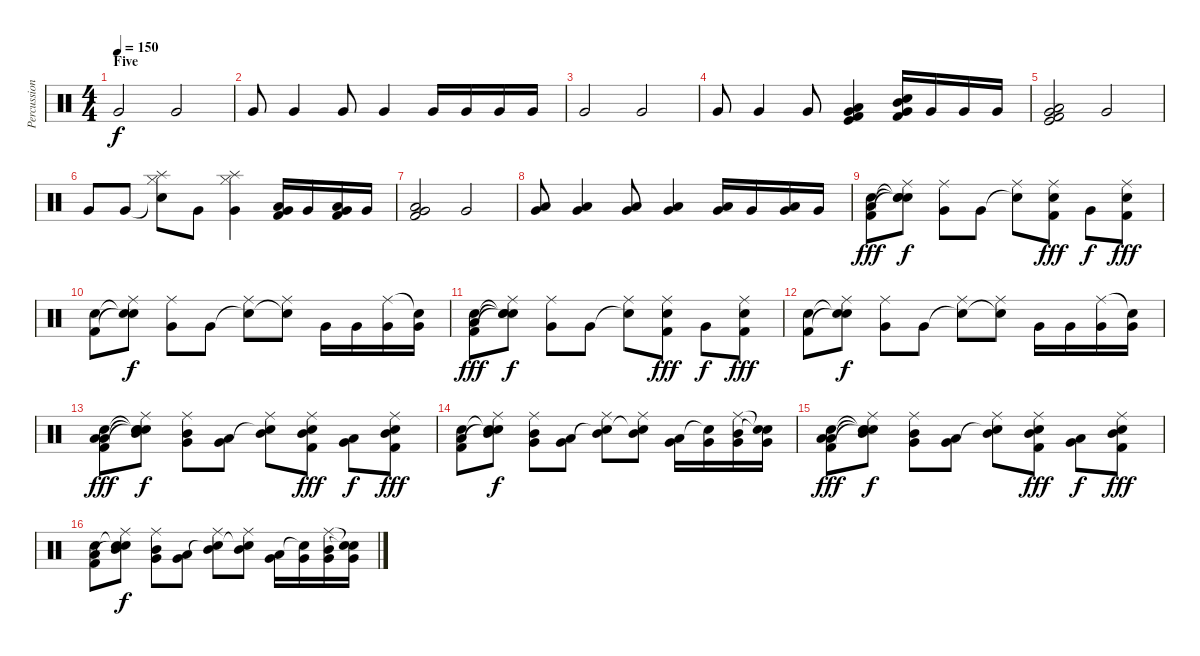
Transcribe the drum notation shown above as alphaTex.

\track ("Percussion" "Percussion") {instrument percussion}
\staff {score}
\articulation defaults
\ts (4 4)
\section ("" "Five")
\tempo 150
\clef neutral
\ks c "Very Low Tom (hit)".2{dy f} "Very Low Tom (hit)".2
|
"Very Low Tom (hit)".8 "Very Low Tom (hit)".4 "Very Low Tom (hit)".8 "Very Low Tom (hit)".4 "Very Low Tom (hit)".16 "Very Low Tom (hit)".16 "Very Low Tom (hit)".16 "Very Low Tom (hit)".16 |
"Very Low Tom (hit)".2 "Very Low Tom (hit)".2 |
"Very Low Tom (hit)".8 "Very Low Tom (hit)".4 "Very Low Tom (hit)".8 ("Very Low Tom (hit)" "Kick (hit) 2" "Low Floor Tom (hit)" "Kick (hit)").4 ("Very Low Tom (hit)" "Snare (hit) 2" "Kick (hit) 2" "Mid Tom (hit)").16 "Very Low Tom (hit)".16 "Very Low Tom (hit)".16 "Very Low Tom (hit)".16 |
("Very Low Tom (hit)" "Kick (hit) 2" "Low Floor Tom (hit)" "Kick (hit)").2 "Very Low Tom (hit)".2 |
"Very Low Tom (hit)".8 "Very Low Tom (hit)".8 ("Snare (hit)"{t} "Splash (hit)" "Hi-Hat (closed)").8 "Very Low Tom (hit)".8 ("Very Low Tom (hit)" "Splash (hit)" "Hi-Hat (closed)").4 ("Very Low Tom (hit)" "Low Floor Tom (hit)" "Kick (hit) 2").16 "Very Low Tom (hit)".16 ("Very Low Tom (hit)" "Low Floor Tom (hit)" "Kick (hit) 2").16 "Very Low Tom (hit)".16 |
("Very Low Tom (hit)" "Low Floor Tom (hit)" "Kick (hit) 2").2 "Very Low Tom (hit)".2 |
("Very Low Tom (hit)" "Low Floor Tom (hit)").8 ("Very Low Tom (hit)" "Low Floor Tom (hit)").4 ("Very Low Tom (hit)" "Low Floor Tom (hit)").8 ("Very Low Tom (hit)" "Low Floor Tom (hit)").4 ("Very Low Tom (hit)" "Low Floor Tom (hit)").16 "Very Low Tom (hit)".16 ("Very Low Tom (hit)" "Low Floor Tom (hit)").16 "Very Low Tom (hit)".16 |
("Snare (hit) 2" "Kick (hit) 2" "Low Floor Tom (hit)").8{dy fff} ("Snare (hit)"{t} "Snare (hit)"{t} "Snare (hit)"{t} "Ride (middle)").8{dy f} ("Very Low Tom (hit)" "Ride (middle)").8 "Very Low Tom (hit)".8 ("Snare (hit)"{t} "Ride (middle)").8 ("Snare (hit) 2" "Kick (hit) 2" "Ride (middle)").8{dy fff} "Very Low Tom (hit)".8{dy f} ("Snare (hit) 2" "Kick (hit) 2" "Ride (middle)").8{dy fff} |
("Snare (hit) 2" "Kick (hit) 2").8 ("Snare (hit)"{t} "Snare (hit)"{t} "Ride (middle)").8{dy f} ("Very Low Tom (hit)" "Ride (middle)").8 "Very Low Tom (hit)".8 ("Snare (hit)"{t} "Ride (middle)").8 ("Snare (hit)"{t} "Ride (middle)").8 "Very Low Tom (hit)".16 "Very Low Tom (hit)".16 ("Very Low Tom (hit)" "Ride (middle)").16 ("Very Low Tom (hit)" "Snare (hit)"{t}).16 |
("Snare (hit) 2" "Kick (hit) 2" "Low Floor Tom (hit)").8{dy fff} ("Snare (hit)"{t} "Snare (hit)"{t} "Snare (hit)"{t} "Ride (middle)").8{dy f} ("Very Low Tom (hit)" "Ride (middle)").8 "Very Low Tom (hit)".8 ("Snare (hit)"{t} "Ride (middle)").8 ("Snare (hit) 2" "Kick (hit) 2" "Ride (middle)").8{dy fff} "Very Low Tom (hit)".8{dy f} ("Snare (hit) 2" "Kick (hit) 2" "Ride (middle)").8{dy fff} |
("Snare (hit) 2" "Kick (hit) 2").8 ("Snare (hit)"{t} "Snare (hit)"{t} "Ride (middle)").8{dy f} ("Very Low Tom (hit)" "Ride (middle)").8 "Very Low Tom (hit)".8 ("Snare (hit)"{t} "Ride (middle)").8 ("Snare (hit)"{t} "Ride (middle)").8 "Very Low Tom (hit)".16 "Very Low Tom (hit)".16 ("Very Low Tom (hit)" "Ride (middle)").16 ("Very Low Tom (hit)" "Snare (hit)"{t}).16 |
("Snare (hit) 2" "Kick (hit) 2" "Low Floor Tom (hit)" "Low Tom (hit)").8{dy fff} ("Snare (hit)"{t} "Snare (hit)"{t} "Snare (hit)"{t} "Ride (middle)" "Mid Tom (hit)").8{dy f} ("Very Low Tom (hit)" "Ride (middle)" "Mid Tom (hit)").8 ("Very Low Tom (hit)" "Low Tom (hit)").8 ("Snare (hit)"{t} "Ride (middle)" "Mid Tom (hit)").8 ("Snare (hit) 2" "Kick (hit) 2" "Ride (middle)" "Mid Tom (hit)").8{dy fff} ("Very Low Tom (hit)" "Low Tom (hit)").8{dy f} ("Snare (hit) 2" "Kick (hit) 2" "Ride (middle)" "Mid Tom (hit)").8{dy fff} |
("Snare (hit) 2" "Kick (hit) 2" "Low Tom (hit)").8 ("Snare (hit)"{t} "Snare (hit)"{t} "Ride (middle)" "Mid Tom (hit)").8{dy f} ("Very Low Tom (hit)" "Ride (middle)" "Mid Tom (hit)").8 ("Very Low Tom (hit)" "Low Tom (hit)").8 ("Snare (hit)"{t} "Ride (middle)" "Mid Tom (hit)").8 ("Snare (hit)"{t} "Ride (middle)" "Mid Tom (hit)").8 ("Very Low Tom (hit)" "Low Tom (hit)").16 ("Very Low Tom (hit)" "Snare (hit)"{t}).16 ("Very Low Tom (hit)" "Ride (middle)" "Mid Tom (hit)").16 ("Very Low Tom (hit)" "Snare (hit)"{t} "Snare (hit)"{t}).16 |
("Snare (hit) 2" "Kick (hit) 2" "Low Floor Tom (hit)" "Low Tom (hit)").8{dy fff} ("Snare (hit)"{t} "Snare (hit)"{t} "Snare (hit)"{t} "Ride (middle)" "Mid Tom (hit)").8{dy f} ("Very Low Tom (hit)" "Ride (middle)" "Mid Tom (hit)").8 ("Very Low Tom (hit)" "Low Tom (hit)").8 ("Snare (hit)"{t} "Ride (middle)" "Mid Tom (hit)").8 ("Snare (hit) 2" "Kick (hit) 2" "Ride (middle)" "Mid Tom (hit)").8{dy fff} ("Very Low Tom (hit)" "Low Tom (hit)").8{dy f} ("Snare (hit) 2" "Kick (hit) 2" "Ride (middle)" "Mid Tom (hit)").8{dy fff} |
("Snare (hit) 2" "Kick (hit) 2" "Low Tom (hit)").8 ("Snare (hit)"{t} "Snare (hit)"{t} "Ride (middle)" "Mid Tom (hit)").8{dy f} ("Very Low Tom (hit)" "Ride (middle)" "Mid Tom (hit)").8 ("Very Low Tom (hit)" "Low Tom (hit)").8 ("Snare (hit)"{t} "Ride (middle)" "Mid Tom (hit)").8 ("Snare (hit)"{t} "Ride (middle)" "Mid Tom (hit)").8 ("Very Low Tom (hit)" "Low Tom (hit)").16 ("Very Low Tom (hit)" "Snare (hit)"{t}).16 ("Very Low Tom (hit)" "Ride (middle)" "Mid Tom (hit)").16 ("Very Low Tom (hit)" "Snare (hit)"{t} "Snare (hit)"{t}).16
